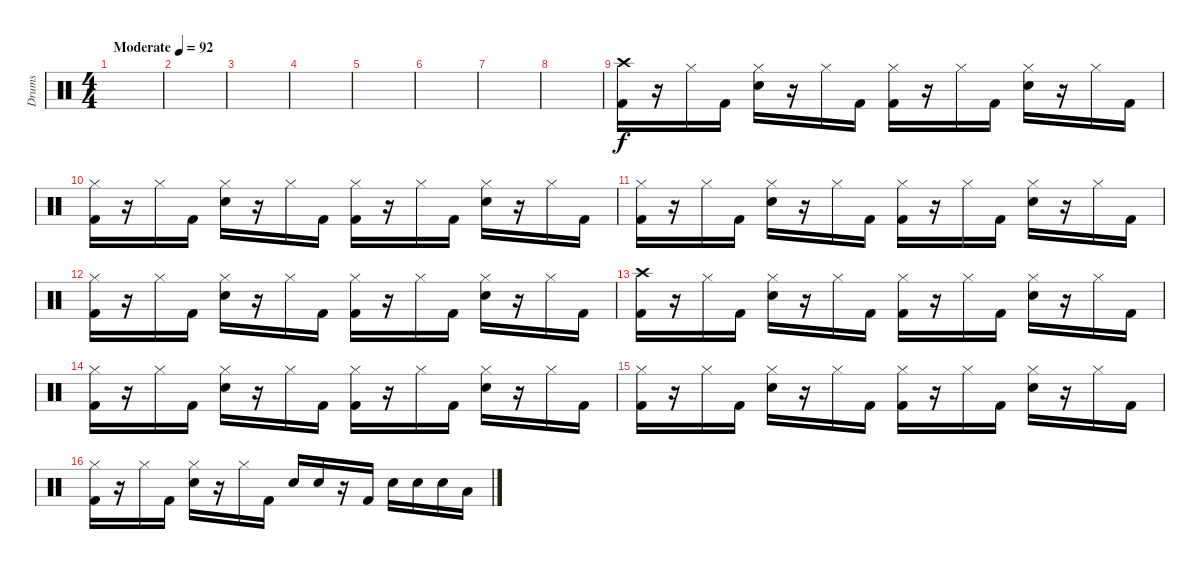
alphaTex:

\track ("Drums" "Drums") {instrument percussion}
\staff {score}
\articulation defaults
\ts (4 4)
\tempo (92 "Moderate")
\clef neutral
\ks c
|
|
|
|
|
|
|
|
("Crash high (hit)" "Kick (hit) 2").16 r.16 "Hi-Hat (closed)".16 "Kick (hit) 2".16 ("Hi-Hat (closed)" "Electric Snare (hit)").16 r.16 "Hi-Hat (closed)".16 "Kick (hit) 2".16 ("Hi-Hat (closed)" "Kick (hit) 2").16 r.16 "Hi-Hat (closed)".16 "Kick (hit) 2".16 ("Hi-Hat (closed)" "Electric Snare (hit)").16 r.16 "Hi-Hat (closed)".16 "Kick (hit) 2".16 |
("Hi-Hat (closed)" "Kick (hit) 2").16 r.16 "Hi-Hat (closed)".16 "Kick (hit) 2".16 ("Hi-Hat (closed)" "Electric Snare (hit)").16 r.16 "Hi-Hat (closed)".16 "Kick (hit) 2".16 ("Hi-Hat (closed)" "Kick (hit) 2").16 r.16 "Hi-Hat (closed)".16 "Kick (hit) 2".16 ("Hi-Hat (closed)" "Electric Snare (hit)").16 r.16 "Hi-Hat (closed)".16 "Kick (hit) 2".16 |
("Hi-Hat (closed)" "Kick (hit) 2").16 r.16 "Hi-Hat (closed)".16 "Kick (hit) 2".16 ("Hi-Hat (closed)" "Electric Snare (hit)").16 r.16 "Hi-Hat (closed)".16 "Kick (hit) 2".16 ("Hi-Hat (closed)" "Kick (hit) 2").16 r.16 "Hi-Hat (closed)".16 "Kick (hit) 2".16 ("Hi-Hat (closed)" "Electric Snare (hit)").16 r.16 "Hi-Hat (closed)".16 "Kick (hit) 2".16 |
("Hi-Hat (closed)" "Kick (hit) 2").16 r.16 "Hi-Hat (closed)".16 "Kick (hit) 2".16 ("Hi-Hat (closed)" "Electric Snare (hit)").16 r.16 "Hi-Hat (closed)".16 "Kick (hit) 2".16 ("Hi-Hat (closed)" "Kick (hit) 2").16 r.16 "Hi-Hat (closed)".16 "Kick (hit) 2".16 ("Hi-Hat (closed)" "Electric Snare (hit)").16 r.16 "Hi-Hat (closed)".16 "Kick (hit) 2".16 |
("Crash high (hit)" "Kick (hit) 2").16 r.16 "Hi-Hat (closed)".16 "Kick (hit) 2".16 ("Hi-Hat (closed)" "Electric Snare (hit)").16 r.16 "Hi-Hat (closed)".16 "Kick (hit) 2".16 ("Hi-Hat (closed)" "Kick (hit) 2").16 r.16 "Hi-Hat (closed)".16 "Kick (hit) 2".16 ("Hi-Hat (closed)" "Electric Snare (hit)").16 r.16 "Hi-Hat (closed)".16 "Kick (hit) 2".16 |
("Hi-Hat (closed)" "Kick (hit) 2").16 r.16 "Hi-Hat (closed)".16 "Kick (hit) 2".16 ("Hi-Hat (closed)" "Electric Snare (hit)").16 r.16 "Hi-Hat (closed)".16 "Kick (hit) 2".16 ("Hi-Hat (closed)" "Kick (hit) 2").16 r.16 "Hi-Hat (closed)".16 "Kick (hit) 2".16 ("Hi-Hat (closed)" "Electric Snare (hit)").16 r.16 "Hi-Hat (closed)".16 "Kick (hit) 2".16 |
("Hi-Hat (closed)" "Kick (hit) 2").16 r.16 "Hi-Hat (closed)".16 "Kick (hit) 2".16 ("Hi-Hat (closed)" "Electric Snare (hit)").16 r.16 "Hi-Hat (closed)".16 "Kick (hit) 2".16 ("Hi-Hat (closed)" "Kick (hit) 2").16 r.16 "Hi-Hat (closed)".16 "Kick (hit) 2".16 ("Hi-Hat (closed)" "Electric Snare (hit)").16 r.16 "Hi-Hat (closed)".16 "Kick (hit) 2".16 |
("Hi-Hat (closed)" "Kick (hit) 2").16 r.16 "Hi-Hat (closed)".16 "Kick (hit) 2".16 ("Hi-Hat (closed)" "Electric Snare (hit)").16 r.16 "Hi-Hat (closed)".16 "Kick (hit) 2".16 "Electric Snare (hit)".16 "Electric Snare (hit)".16 r.16 "Kick (hit) 2".16 "Electric Snare (hit)".16 "Electric Snare (hit)".16 "Electric Snare (hit)".16 "Low Tom (hit)".16
